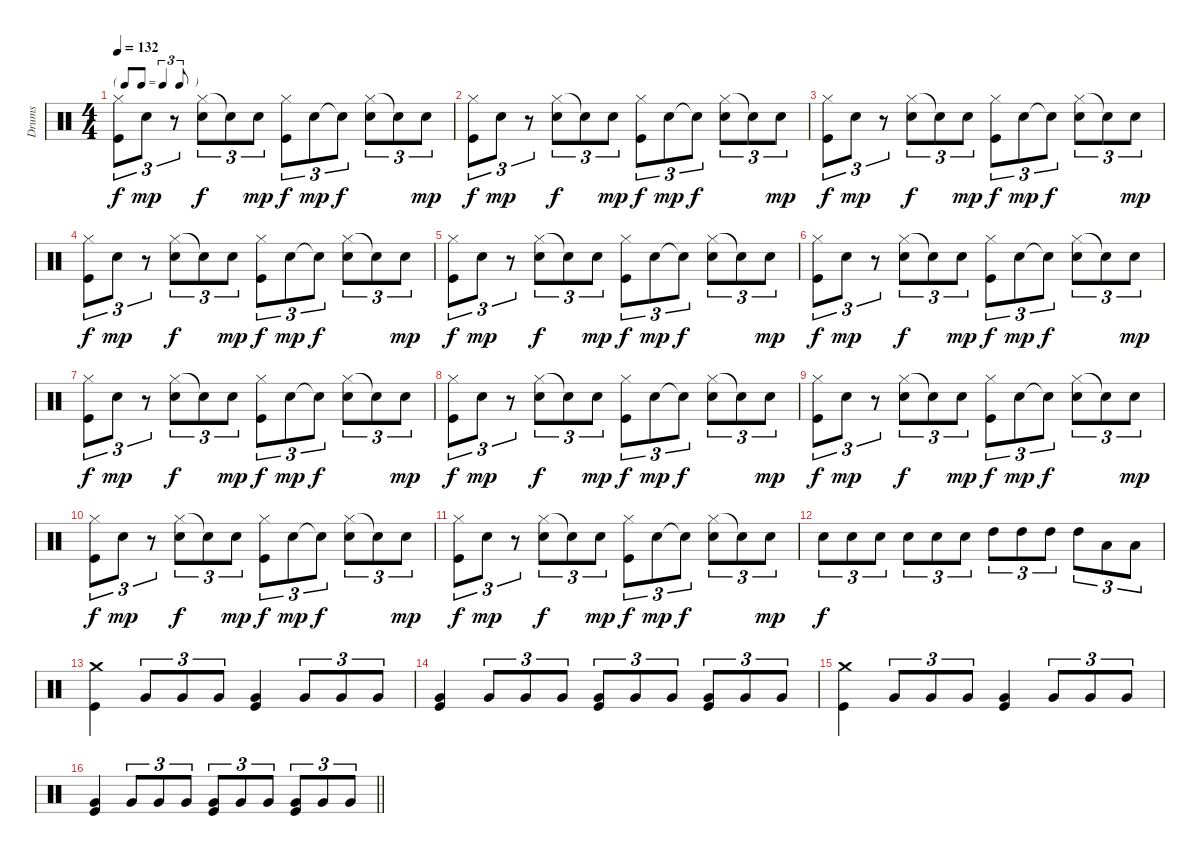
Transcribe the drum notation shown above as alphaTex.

\track ("Drums" "Drums") {instrument percussion}
\staff {score}
\articulation defaults
\ts (4 4)
\tf triplet8th
\tempo 132
\clef neutral
\ks c
("Hi-Hat (closed)" "Kick (hit)").8{tu (3 2) dy f} "Electric Snare (hit)".8{tu (3 2) dy mp} r.8{tu (3 2)} ("Hi-Hat (closed)" "Electric Snare (hit)").8{tu (3 2) dy f} "Snare (hit)"{t}.8{tu (3 2)} "Electric Snare (hit)".8{tu (3 2) dy mp} ("Hi-Hat (closed)" "Kick (hit)").8{tu (3 2) dy f} "Electric Snare (hit)".8{tu (3 2) dy mp} "Snare (hit)"{t}.8{tu (3 2) dy f} ("Hi-Hat (closed)" "Electric Snare (hit)").8{tu (3 2)} "Snare (hit)"{t}.8{tu (3 2)} "Electric Snare (hit)".8{tu (3 2) dy mp} |
("Hi-Hat (closed)" "Kick (hit)").8{tu (3 2) dy f} "Electric Snare (hit)".8{tu (3 2) dy mp} r.8{tu (3 2)} ("Hi-Hat (closed)" "Electric Snare (hit)").8{tu (3 2) dy f} "Snare (hit)"{t}.8{tu (3 2)} "Electric Snare (hit)".8{tu (3 2) dy mp} ("Hi-Hat (closed)" "Kick (hit)").8{tu (3 2) dy f} "Electric Snare (hit)".8{tu (3 2) dy mp} "Snare (hit)"{t}.8{tu (3 2) dy f} ("Hi-Hat (closed)" "Electric Snare (hit)").8{tu (3 2)} "Snare (hit)"{t}.8{tu (3 2)} "Electric Snare (hit)".8{tu (3 2) dy mp} |
("Hi-Hat (closed)" "Kick (hit)").8{tu (3 2) dy f} "Electric Snare (hit)".8{tu (3 2) dy mp} r.8{tu (3 2)} ("Hi-Hat (closed)" "Electric Snare (hit)").8{tu (3 2) dy f} "Snare (hit)"{t}.8{tu (3 2)} "Electric Snare (hit)".8{tu (3 2) dy mp} ("Hi-Hat (closed)" "Kick (hit)").8{tu (3 2) dy f} "Electric Snare (hit)".8{tu (3 2) dy mp} "Snare (hit)"{t}.8{tu (3 2) dy f} ("Hi-Hat (closed)" "Electric Snare (hit)").8{tu (3 2)} "Snare (hit)"{t}.8{tu (3 2)} "Electric Snare (hit)".8{tu (3 2) dy mp} |
("Hi-Hat (closed)" "Kick (hit)").8{tu (3 2) dy f} "Electric Snare (hit)".8{tu (3 2) dy mp} r.8{tu (3 2)} ("Hi-Hat (closed)" "Electric Snare (hit)").8{tu (3 2) dy f} "Snare (hit)"{t}.8{tu (3 2)} "Electric Snare (hit)".8{tu (3 2) dy mp} ("Hi-Hat (closed)" "Kick (hit)").8{tu (3 2) dy f} "Electric Snare (hit)".8{tu (3 2) dy mp} "Snare (hit)"{t}.8{tu (3 2) dy f} ("Hi-Hat (closed)" "Electric Snare (hit)").8{tu (3 2)} "Snare (hit)"{t}.8{tu (3 2)} "Electric Snare (hit)".8{tu (3 2) dy mp} |
("Hi-Hat (closed)" "Kick (hit)").8{tu (3 2) dy f} "Electric Snare (hit)".8{tu (3 2) dy mp} r.8{tu (3 2)} ("Hi-Hat (closed)" "Electric Snare (hit)").8{tu (3 2) dy f} "Snare (hit)"{t}.8{tu (3 2)} "Electric Snare (hit)".8{tu (3 2) dy mp} ("Hi-Hat (closed)" "Kick (hit)").8{tu (3 2) dy f} "Electric Snare (hit)".8{tu (3 2) dy mp} "Snare (hit)"{t}.8{tu (3 2) dy f} ("Hi-Hat (closed)" "Electric Snare (hit)").8{tu (3 2)} "Snare (hit)"{t}.8{tu (3 2)} "Electric Snare (hit)".8{tu (3 2) dy mp} |
("Hi-Hat (closed)" "Kick (hit)").8{tu (3 2) dy f} "Electric Snare (hit)".8{tu (3 2) dy mp} r.8{tu (3 2)} ("Hi-Hat (closed)" "Electric Snare (hit)").8{tu (3 2) dy f} "Snare (hit)"{t}.8{tu (3 2)} "Electric Snare (hit)".8{tu (3 2) dy mp} ("Hi-Hat (closed)" "Kick (hit)").8{tu (3 2) dy f} "Electric Snare (hit)".8{tu (3 2) dy mp} "Snare (hit)"{t}.8{tu (3 2) dy f} ("Hi-Hat (closed)" "Electric Snare (hit)").8{tu (3 2)} "Snare (hit)"{t}.8{tu (3 2)} "Electric Snare (hit)".8{tu (3 2) dy mp} |
("Hi-Hat (closed)" "Kick (hit)").8{tu (3 2) dy f} "Electric Snare (hit)".8{tu (3 2) dy mp} r.8{tu (3 2)} ("Hi-Hat (closed)" "Electric Snare (hit)").8{tu (3 2) dy f} "Snare (hit)"{t}.8{tu (3 2)} "Electric Snare (hit)".8{tu (3 2) dy mp} ("Hi-Hat (closed)" "Kick (hit)").8{tu (3 2) dy f} "Electric Snare (hit)".8{tu (3 2) dy mp} "Snare (hit)"{t}.8{tu (3 2) dy f} ("Hi-Hat (closed)" "Electric Snare (hit)").8{tu (3 2)} "Snare (hit)"{t}.8{tu (3 2)} "Electric Snare (hit)".8{tu (3 2) dy mp} |
("Hi-Hat (closed)" "Kick (hit)").8{tu (3 2) dy f} "Electric Snare (hit)".8{tu (3 2) dy mp} r.8{tu (3 2)} ("Hi-Hat (closed)" "Electric Snare (hit)").8{tu (3 2) dy f} "Snare (hit)"{t}.8{tu (3 2)} "Electric Snare (hit)".8{tu (3 2) dy mp} ("Hi-Hat (closed)" "Kick (hit)").8{tu (3 2) dy f} "Electric Snare (hit)".8{tu (3 2) dy mp} "Snare (hit)"{t}.8{tu (3 2) dy f} ("Hi-Hat (closed)" "Electric Snare (hit)").8{tu (3 2)} "Snare (hit)"{t}.8{tu (3 2)} "Electric Snare (hit)".8{tu (3 2) dy mp} |
("Hi-Hat (closed)" "Kick (hit)").8{tu (3 2) dy f} "Electric Snare (hit)".8{tu (3 2) dy mp} r.8{tu (3 2)} ("Hi-Hat (closed)" "Electric Snare (hit)").8{tu (3 2) dy f} "Snare (hit)"{t}.8{tu (3 2)} "Electric Snare (hit)".8{tu (3 2) dy mp} ("Hi-Hat (closed)" "Kick (hit)").8{tu (3 2) dy f} "Electric Snare (hit)".8{tu (3 2) dy mp} "Snare (hit)"{t}.8{tu (3 2) dy f} ("Hi-Hat (closed)" "Electric Snare (hit)").8{tu (3 2)} "Snare (hit)"{t}.8{tu (3 2)} "Electric Snare (hit)".8{tu (3 2) dy mp} |
("Hi-Hat (closed)" "Kick (hit)").8{tu (3 2) dy f} "Electric Snare (hit)".8{tu (3 2) dy mp} r.8{tu (3 2)} ("Hi-Hat (closed)" "Electric Snare (hit)").8{tu (3 2) dy f} "Snare (hit)"{t}.8{tu (3 2)} "Electric Snare (hit)".8{tu (3 2) dy mp} ("Hi-Hat (closed)" "Kick (hit)").8{tu (3 2) dy f} "Electric Snare (hit)".8{tu (3 2) dy mp} "Snare (hit)"{t}.8{tu (3 2) dy f} ("Hi-Hat (closed)" "Electric Snare (hit)").8{tu (3 2)} "Snare (hit)"{t}.8{tu (3 2)} "Electric Snare (hit)".8{tu (3 2) dy mp} |
("Hi-Hat (closed)" "Kick (hit)").8{tu (3 2) dy f} "Electric Snare (hit)".8{tu (3 2) dy mp} r.8{tu (3 2)} ("Hi-Hat (closed)" "Electric Snare (hit)").8{tu (3 2) dy f} "Snare (hit)"{t}.8{tu (3 2)} "Electric Snare (hit)".8{tu (3 2) dy mp} ("Hi-Hat (closed)" "Kick (hit)").8{tu (3 2) dy f} "Electric Snare (hit)".8{tu (3 2) dy mp} "Snare (hit)"{t}.8{tu (3 2) dy f} ("Hi-Hat (closed)" "Electric Snare (hit)").8{tu (3 2)} "Snare (hit)"{t}.8{tu (3 2)} "Electric Snare (hit)".8{tu (3 2) dy mp} |
"Electric Snare (hit)".8{tu (3 2) dy f} "Electric Snare (hit)".8{tu (3 2)} "Electric Snare (hit)".8{tu (3 2)} "Electric Snare (hit)".8{tu (3 2)} "Electric Snare (hit)".8{tu (3 2)} "Electric Snare (hit)".8{tu (3 2)} "High Tom (hit)".8{tu (3 2)} "High Tom (hit)".8{tu (3 2)} "High Tom (hit)".8{tu (3 2)} "High Tom (hit)".8{tu (3 2)} "Low Tom (hit)".8{tu (3 2)} "Low Tom (hit)".8{tu (3 2)} |
("Crash medium (hit)" "Kick (hit)").4 "Very Low Tom (hit)".8{tu (3 2)} "Very Low Tom (hit)".8{tu (3 2)} "Very Low Tom (hit)".8{tu (3 2)} ("Very Low Tom (hit)" "Kick (hit)").4 "Very Low Tom (hit)".8{tu (3 2)} "Very Low Tom (hit)".8{tu (3 2)} "Very Low Tom (hit)".8{tu (3 2)} |
("Very Low Tom (hit)" "Kick (hit)").4 "Very Low Tom (hit)".8{tu (3 2)} "Very Low Tom (hit)".8{tu (3 2)} "Very Low Tom (hit)".8{tu (3 2)} ("Very Low Tom (hit)" "Kick (hit)").8{tu (3 2)} "Very Low Tom (hit)".8{tu (3 2)} "Very Low Tom (hit)".8{tu (3 2)} ("Very Low Tom (hit)" "Kick (hit)").8{tu (3 2)} "Very Low Tom (hit)".8{tu (3 2)} "Very Low Tom (hit)".8{tu (3 2)} |
("Crash medium (hit)" "Kick (hit)").4 "Very Low Tom (hit)".8{tu (3 2)} "Very Low Tom (hit)".8{tu (3 2)} "Very Low Tom (hit)".8{tu (3 2)} ("Very Low Tom (hit)" "Kick (hit)").4 "Very Low Tom (hit)".8{tu (3 2)} "Very Low Tom (hit)".8{tu (3 2)} "Very Low Tom (hit)".8{tu (3 2)} |
\barLineRight lightlight
("Very Low Tom (hit)" "Kick (hit)").4 "Very Low Tom (hit)".8{tu (3 2)} "Very Low Tom (hit)".8{tu (3 2)} "Very Low Tom (hit)".8{tu (3 2)} ("Very Low Tom (hit)" "Kick (hit)").8{tu (3 2)} "Very Low Tom (hit)".8{tu (3 2)} "Very Low Tom (hit)".8{tu (3 2)} ("Very Low Tom (hit)" "Kick (hit)").8{tu (3 2)} "Very Low Tom (hit)".8{tu (3 2)} "Very Low Tom (hit)".8{tu (3 2)}
